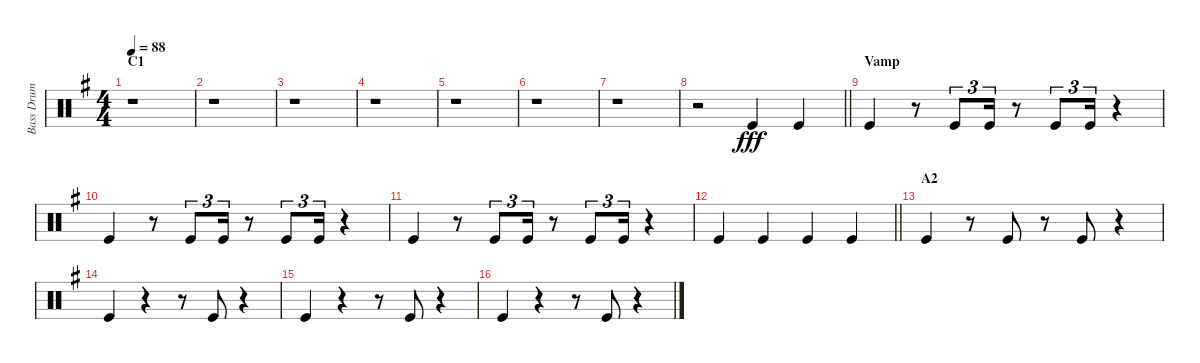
\track ("Bass Drum" "Bass Drum") {instrument percussion}
\staff {score}
\articulation defaults
\ts (4 4)
\section ("" "C1")
\tempo 88
\clef neutral
\ks g
r.1{dy fff} |
r.1 |
r.1 |
r.1 |
r.1 |
r.1 |
r.1 |
\barLineRight lightlight
r.2 "Kick (hit)".4 "Kick (hit)".4 |
\section ("" "Vamp")
"Kick (hit)".4 r.8 "Kick (hit)".8{tu (3 2)} "Kick (hit)".16{tu (3 2)} r.8 "Kick (hit)".8{tu (3 2)} "Kick (hit)".16{tu (3 2)} r.4 |
"Kick (hit)".4 r.8 "Kick (hit)".8{tu (3 2)} "Kick (hit)".16{tu (3 2)} r.8 "Kick (hit)".8{tu (3 2)} "Kick (hit)".16{tu (3 2)} r.4 |
"Kick (hit)".4 r.8 "Kick (hit)".8{tu (3 2)} "Kick (hit)".16{tu (3 2)} r.8 "Kick (hit)".8{tu (3 2)} "Kick (hit)".16{tu (3 2)} r.4 |
\barLineRight lightlight "Kick (hit)".4 "Kick (hit)".4 "Kick (hit)".4 "Kick (hit)".4
|
\section ("" "A2")
"Kick (hit)".4 r.8 "Kick (hit)".8 r.8 "Kick (hit)".8 r.4 |
"Kick (hit)".4 r.4 r.8 "Kick (hit)".8 r.4 |
"Kick (hit)".4 r.4 r.8 "Kick (hit)".8 r.4 |
"Kick (hit)".4 r.4 r.8 "Kick (hit)".8 r.4
